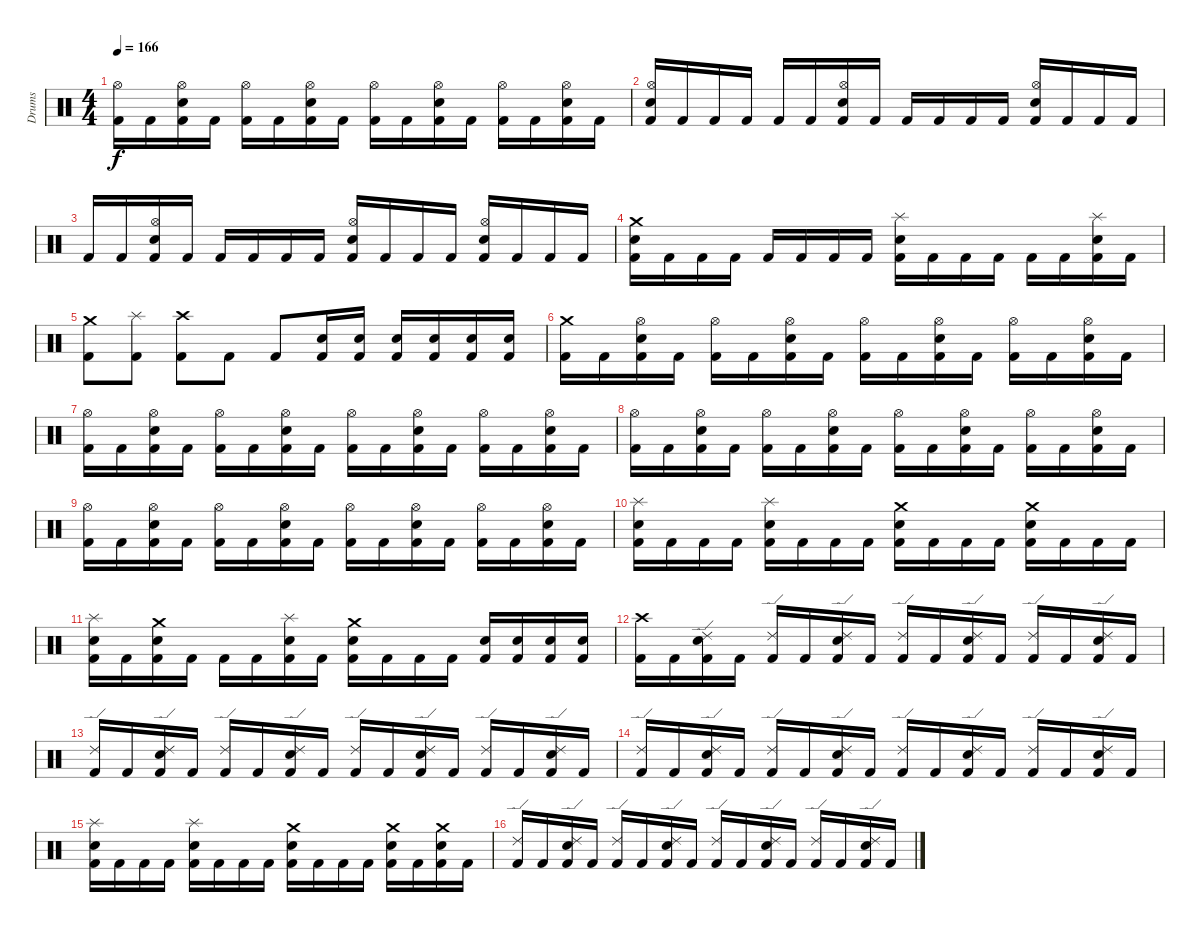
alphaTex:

\track ("Drums" "Drums") {instrument percussion}
\staff {score}
\articulation defaults
\ts (4 4)
\tempo 166
\clef neutral
\ks c
("Kick (hit) 2" "Hi-Hat (open)").16{dy f} "Kick (hit) 2".16 ("Kick (hit) 2" "Electric Snare (hit)" "Hi-Hat (open)").16 "Kick (hit) 2".16 ("Kick (hit) 2" "Hi-Hat (open)").16 "Kick (hit) 2".16 ("Kick (hit) 2" "Electric Snare (hit)" "Hi-Hat (open)").16 "Kick (hit) 2".16 ("Kick (hit) 2" "Hi-Hat (open)").16 "Kick (hit) 2".16 ("Kick (hit) 2" "Electric Snare (hit)" "Hi-Hat (open)").16 "Kick (hit) 2".16 ("Kick (hit) 2" "Hi-Hat (open)").16 "Kick (hit) 2".16 ("Kick (hit) 2" "Electric Snare (hit)" "Hi-Hat (open)").16 "Kick (hit) 2".16 |
("Kick (hit) 2" "Electric Snare (hit)" "Hi-Hat (open)").16 "Kick (hit) 2".16 "Kick (hit) 2".16 "Kick (hit) 2".16 "Kick (hit) 2".16 "Kick (hit) 2".16 ("Kick (hit) 2" "Electric Snare (hit)" "Hi-Hat (open)").16 "Kick (hit) 2".16 "Kick (hit) 2".16 "Kick (hit) 2".16 "Kick (hit) 2".16 "Kick (hit) 2".16 ("Kick (hit) 2" "Electric Snare (hit)" "Hi-Hat (open)").16 "Kick (hit) 2".16 "Kick (hit) 2".16 "Kick (hit) 2".16 |
"Kick (hit) 2".16 "Kick (hit) 2".16 ("Kick (hit) 2" "Electric Snare (hit)" "Hi-Hat (open)").16 "Kick (hit) 2".16 "Kick (hit) 2".16 "Kick (hit) 2".16 "Kick (hit) 2".16 "Kick (hit) 2".16 ("Kick (hit) 2" "Electric Snare (hit)" "Hi-Hat (open)").16 "Kick (hit) 2".16 "Kick (hit) 2".16 "Kick (hit) 2".16 ("Kick (hit) 2" "Electric Snare (hit)" "Hi-Hat (open)").16 "Kick (hit) 2".16 "Kick (hit) 2".16 "Kick (hit) 2".16 |
\section ("" "")
("Kick (hit) 2" "Electric Snare (hit)" "Crash medium (hit)").16 "Kick (hit) 2".16 "Kick (hit) 2".16 "Kick (hit) 2".16 "Kick (hit) 2".16 "Kick (hit) 2".16 "Kick (hit) 2".16 "Kick (hit) 2".16 ("Kick (hit) 2" "Electric Snare (hit)" "Splash (hit)").16 "Kick (hit) 2".16 "Kick (hit) 2".16 "Kick (hit) 2".16 "Kick (hit) 2".16 "Kick (hit) 2".16 ("Kick (hit) 2" "Electric Snare (hit)" "Splash (hit)").16 "Kick (hit) 2".16 |
("Kick (hit) 2" "Crash medium (hit)").8 ("Kick (hit) 2" "Splash (hit)").8 ("Kick (hit) 2" "Crash high (hit)").8 "Kick (hit) 2".8 "Kick (hit) 2".8 ("Kick (hit) 2" "Electric Snare (hit)").16 ("Kick (hit) 2" "Electric Snare (hit)").16 ("Kick (hit) 2" "Electric Snare (hit)").16 ("Kick (hit) 2" "Electric Snare (hit)").16 ("Kick (hit) 2" "Electric Snare (hit)").16 ("Kick (hit) 2" "Electric Snare (hit)").16 |
("Kick (hit) 2" "Crash medium (hit)").16 "Kick (hit) 2".16 ("Kick (hit) 2" "Electric Snare (hit)" "Hi-Hat (open)").16 "Kick (hit) 2".16 ("Kick (hit) 2" "Hi-Hat (open)").16 "Kick (hit) 2".16 ("Kick (hit) 2" "Electric Snare (hit)" "Hi-Hat (open)").16 "Kick (hit) 2".16 ("Kick (hit) 2" "Hi-Hat (open)").16 "Kick (hit) 2".16 ("Kick (hit) 2" "Electric Snare (hit)" "Hi-Hat (open)").16 "Kick (hit) 2".16 ("Kick (hit) 2" "Hi-Hat (open)").16 "Kick (hit) 2".16 ("Kick (hit) 2" "Electric Snare (hit)" "Hi-Hat (open)").16 "Kick (hit) 2".16 |
("Kick (hit) 2" "Hi-Hat (open)").16 "Kick (hit) 2".16 ("Kick (hit) 2" "Electric Snare (hit)" "Hi-Hat (open)").16 "Kick (hit) 2".16 ("Kick (hit) 2" "Hi-Hat (open)").16 "Kick (hit) 2".16 ("Kick (hit) 2" "Electric Snare (hit)" "Hi-Hat (open)").16 "Kick (hit) 2".16 ("Kick (hit) 2" "Hi-Hat (open)").16 "Kick (hit) 2".16 ("Kick (hit) 2" "Electric Snare (hit)" "Hi-Hat (open)").16 "Kick (hit) 2".16 ("Kick (hit) 2" "Hi-Hat (open)").16 "Kick (hit) 2".16 ("Kick (hit) 2" "Electric Snare (hit)" "Hi-Hat (open)").16 "Kick (hit) 2".16 |
("Kick (hit) 2" "Hi-Hat (open)").16 "Kick (hit) 2".16 ("Kick (hit) 2" "Electric Snare (hit)" "Hi-Hat (open)").16 "Kick (hit) 2".16 ("Kick (hit) 2" "Hi-Hat (open)").16 "Kick (hit) 2".16 ("Kick (hit) 2" "Electric Snare (hit)" "Hi-Hat (open)").16 "Kick (hit) 2".16 ("Kick (hit) 2" "Hi-Hat (open)").16 "Kick (hit) 2".16 ("Kick (hit) 2" "Electric Snare (hit)" "Hi-Hat (open)").16 "Kick (hit) 2".16 ("Kick (hit) 2" "Hi-Hat (open)").16 "Kick (hit) 2".16 ("Kick (hit) 2" "Electric Snare (hit)" "Hi-Hat (open)").16 "Kick (hit) 2".16 |
("Kick (hit) 2" "Hi-Hat (open)").16 "Kick (hit) 2".16 ("Kick (hit) 2" "Electric Snare (hit)" "Hi-Hat (open)").16 "Kick (hit) 2".16 ("Kick (hit) 2" "Hi-Hat (open)").16 "Kick (hit) 2".16 ("Kick (hit) 2" "Electric Snare (hit)" "Hi-Hat (open)").16 "Kick (hit) 2".16 ("Kick (hit) 2" "Hi-Hat (open)").16 "Kick (hit) 2".16 ("Kick (hit) 2" "Electric Snare (hit)" "Hi-Hat (open)").16 "Kick (hit) 2".16 ("Kick (hit) 2" "Hi-Hat (open)").16 "Kick (hit) 2".16 ("Kick (hit) 2" "Electric Snare (hit)" "Hi-Hat (open)").16 "Kick (hit) 2".16 |
("Kick (hit) 2" "Electric Snare (hit)" "Splash (hit)").16 "Kick (hit) 2".16 "Kick (hit) 2".16 "Kick (hit) 2".16 ("Kick (hit) 2" "Electric Snare (hit)" "Splash (hit)").16 "Kick (hit) 2".16 "Kick (hit) 2".16 "Kick (hit) 2".16 ("Kick (hit) 2" "Electric Snare (hit)" "Crash medium (hit)").16 "Kick (hit) 2".16 "Kick (hit) 2".16 "Kick (hit) 2".16 ("Kick (hit) 2" "Electric Snare (hit)" "Crash medium (hit)").16 "Kick (hit) 2".16 "Kick (hit) 2".16 "Kick (hit) 2".16 |
("Kick (hit) 2" "Electric Snare (hit)" "Splash (hit)").16 "Kick (hit) 2".16 ("Kick (hit) 2" "Electric Snare (hit)" "Crash medium (hit)").16 "Kick (hit) 2".16 "Kick (hit) 2".16 "Kick (hit) 2".16 ("Kick (hit) 2" "Electric Snare (hit)" "Splash (hit)").16 "Kick (hit) 2".16 ("Kick (hit) 2" "Electric Snare (hit)" "Crash medium (hit)").16 "Kick (hit) 2".16 "Kick (hit) 2".16 "Kick (hit) 2".16 ("Kick (hit) 2" "Electric Snare (hit)").16 ("Kick (hit) 2" "Electric Snare (hit)").16 ("Kick (hit) 2" "Electric Snare (hit)").16 ("Kick (hit) 2" "Electric Snare (hit)").16 |
\section ("" "")
("Kick (hit) 2" "Crash high (hit)").16 "Kick (hit) 2".16 ("Kick (hit) 2" "Electric Snare (hit)" "Ride (edge) 2").16 "Kick (hit) 2".16 ("Kick (hit) 2" "Ride (edge) 2").16 "Kick (hit) 2".16 ("Kick (hit) 2" "Electric Snare (hit)" "Ride (edge) 2").16 "Kick (hit) 2".16 ("Kick (hit) 2" "Ride (edge) 2").16 "Kick (hit) 2".16 ("Kick (hit) 2" "Electric Snare (hit)" "Ride (edge) 2").16 "Kick (hit) 2".16 ("Kick (hit) 2" "Ride (edge) 2").16 "Kick (hit) 2".16 ("Kick (hit) 2" "Electric Snare (hit)" "Ride (edge) 2").16 "Kick (hit) 2".16 |
("Kick (hit) 2" "Ride (edge) 2").16 "Kick (hit) 2".16 ("Kick (hit) 2" "Electric Snare (hit)" "Ride (edge) 2").16 "Kick (hit) 2".16 ("Kick (hit) 2" "Ride (edge) 2").16 "Kick (hit) 2".16 ("Kick (hit) 2" "Electric Snare (hit)" "Ride (edge) 2").16 "Kick (hit) 2".16 ("Kick (hit) 2" "Ride (edge) 2").16 "Kick (hit) 2".16 ("Kick (hit) 2" "Electric Snare (hit)" "Ride (edge) 2").16 "Kick (hit) 2".16 ("Kick (hit) 2" "Ride (edge) 2").16 "Kick (hit) 2".16 ("Kick (hit) 2" "Electric Snare (hit)" "Ride (edge) 2").16 "Kick (hit) 2".16 |
("Kick (hit) 2" "Ride (edge) 2").16 "Kick (hit) 2".16 ("Kick (hit) 2" "Electric Snare (hit)" "Ride (edge) 2").16 "Kick (hit) 2".16 ("Kick (hit) 2" "Ride (edge) 2").16 "Kick (hit) 2".16 ("Kick (hit) 2" "Electric Snare (hit)" "Ride (edge) 2").16 "Kick (hit) 2".16 ("Kick (hit) 2" "Ride (edge) 2").16 "Kick (hit) 2".16 ("Kick (hit) 2" "Electric Snare (hit)" "Ride (edge) 2").16 "Kick (hit) 2".16 ("Kick (hit) 2" "Ride (edge) 2").16 "Kick (hit) 2".16 ("Kick (hit) 2" "Electric Snare (hit)" "Ride (edge) 2").16 "Kick (hit) 2".16 |
("Kick (hit) 2" "Electric Snare (hit)" "Splash (hit)").16 "Kick (hit) 2".16 "Kick (hit) 2".16 "Kick (hit) 2".16 ("Kick (hit) 2" "Electric Snare (hit)" "Splash (hit)").16 "Kick (hit) 2".16 "Kick (hit) 2".16 "Kick (hit) 2".16 ("Kick (hit) 2" "Electric Snare (hit)" "Crash medium (hit)").16 "Kick (hit) 2".16 "Kick (hit) 2".16 "Kick (hit) 2".16 ("Kick (hit) 2" "Electric Snare (hit)" "Crash medium (hit)").16 "Kick (hit) 2".16 ("Kick (hit) 2" "Electric Snare (hit)" "Crash medium (hit)").16 "Kick (hit) 2".16 |
("Kick (hit) 2" "Ride (edge) 2").16 "Kick (hit) 2".16 ("Kick (hit) 2" "Electric Snare (hit)" "Ride (edge) 2").16 "Kick (hit) 2".16 ("Kick (hit) 2" "Ride (edge) 2").16 "Kick (hit) 2".16 ("Kick (hit) 2" "Electric Snare (hit)" "Ride (edge) 2").16 "Kick (hit) 2".16 ("Kick (hit) 2" "Ride (edge) 2").16 "Kick (hit) 2".16 ("Kick (hit) 2" "Electric Snare (hit)" "Ride (edge) 2").16 "Kick (hit) 2".16 ("Kick (hit) 2" "Ride (edge) 2").16 "Kick (hit) 2".16 ("Kick (hit) 2" "Electric Snare (hit)" "Ride (edge) 2").16 "Kick (hit) 2".16
